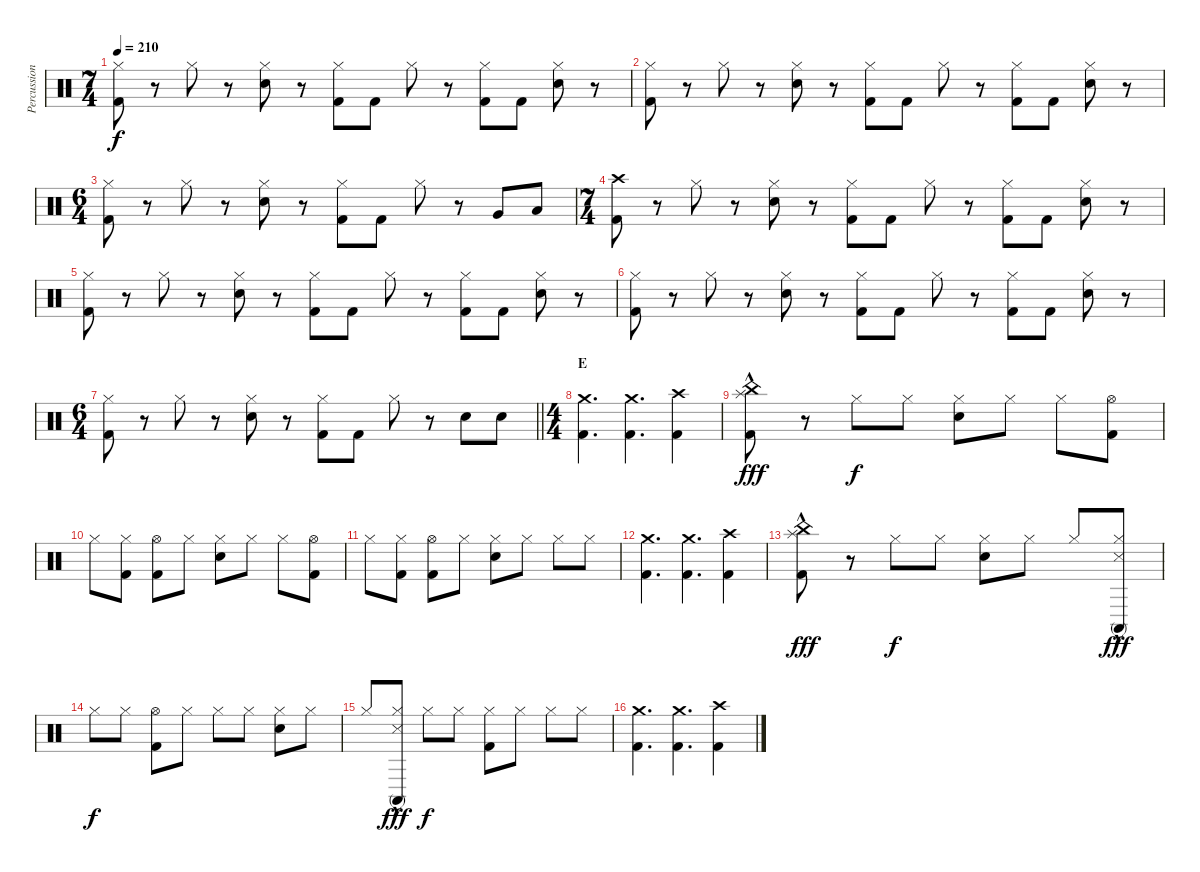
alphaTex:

\track ("Percussion" "Percussion") {instrument percussion}
\staff {score}
\articulation defaults
\ts (7 4)
\tempo 210
\clef neutral
\ks c
("Hi-Hat (closed)" "Kick (hit) 2").8{dy f} r.8 "Hi-Hat (closed)".8 r.8 ("Hi-Hat (closed)" "Electric Snare (hit)").8 r.8 ("Hi-Hat (closed)" "Kick (hit) 2").8 "Kick (hit) 2".8 "Hi-Hat (closed)".8 r.8 ("Hi-Hat (closed)" "Kick (hit) 2").8 "Kick (hit) 2".8 ("Hi-Hat (closed)" "Electric Snare (hit)").8 r.8 |
("Hi-Hat (closed)" "Kick (hit) 2").8 r.8 "Hi-Hat (closed)".8 r.8 ("Hi-Hat (closed)" "Electric Snare (hit)").8 r.8 ("Hi-Hat (closed)" "Kick (hit) 2").8 "Kick (hit) 2".8 "Hi-Hat (closed)".8 r.8 ("Hi-Hat (closed)" "Kick (hit) 2").8 "Kick (hit) 2".8 ("Hi-Hat (closed)" "Electric Snare (hit)").8 r.8 |
\ts (6 4)
("Hi-Hat (closed)" "Kick (hit) 2").8 r.8 "Hi-Hat (closed)".8 r.8 ("Hi-Hat (closed)" "Electric Snare (hit)").8 r.8 ("Hi-Hat (closed)" "Kick (hit) 2").8 "Kick (hit) 2".8 "Hi-Hat (closed)".8 r.8 "Very Low Tom (hit)".8 "Low Floor Tom (hit)".8 |
\ts (7 4)
("Crash high (hit)" "Kick (hit) 2").8 r.8 "Hi-Hat (closed)".8 r.8 ("Hi-Hat (closed)" "Electric Snare (hit)").8 r.8 ("Hi-Hat (closed)" "Kick (hit) 2").8 "Kick (hit) 2".8 "Hi-Hat (closed)".8 r.8 ("Hi-Hat (closed)" "Kick (hit) 2").8 "Kick (hit) 2".8 ("Hi-Hat (closed)" "Electric Snare (hit)").8 r.8 |
("Hi-Hat (closed)" "Kick (hit) 2").8 r.8 "Hi-Hat (closed)".8 r.8 ("Hi-Hat (closed)" "Electric Snare (hit)").8 r.8 ("Hi-Hat (closed)" "Kick (hit) 2").8 "Kick (hit) 2".8 "Hi-Hat (closed)".8 r.8 ("Hi-Hat (closed)" "Kick (hit) 2").8 "Kick (hit) 2".8 ("Hi-Hat (closed)" "Electric Snare (hit)").8 r.8 |
("Hi-Hat (closed)" "Kick (hit) 2").8 r.8 "Hi-Hat (closed)".8 r.8 ("Hi-Hat (closed)" "Electric Snare (hit)").8 r.8 ("Hi-Hat (closed)" "Kick (hit) 2").8 "Kick (hit) 2".8 "Hi-Hat (closed)".8 r.8 ("Hi-Hat (closed)" "Kick (hit) 2").8 "Kick (hit) 2".8 ("Hi-Hat (closed)" "Electric Snare (hit)").8 r.8 |
\ts (6 4)
\barLineRight lightlight
("Hi-Hat (closed)" "Kick (hit) 2").8 r.8 "Hi-Hat (closed)".8 r.8 ("Hi-Hat (closed)" "Electric Snare (hit)").8 r.8 ("Hi-Hat (closed)" "Kick (hit) 2").8 "Kick (hit) 2".8 "Hi-Hat (closed)".8 r.8 "Electric Snare (hit)".8 "Electric Snare (hit)".8 |
\ts (4 4)
\section ("" "E")
("Crash medium (hit)" "Kick (hit) 2").4{d} ("Crash medium (hit)" "Kick (hit) 2").4{d} ("Crash high (hit)" "Kick (hit) 2").4 |
("China (hit)" "Splash (hit)"{hac} "Kick (hit) 2").8{dy fff} r.8 "Hi-Hat (closed)".8{dy f} "Hi-Hat (closed)".8 ("Hi-Hat (closed)" "Electric Snare (hit)").8 "Hi-Hat (closed)".8 "Hi-Hat (closed)".8 ("Hi-Hat (open)" "Kick (hit) 2").8 |
"Hi-Hat (closed)".8 ("Hi-Hat (closed)" "Kick (hit) 2").8 ("Hi-Hat (open)" "Kick (hit) 2").8 "Hi-Hat (closed)".8 ("Hi-Hat (closed)" "Electric Snare (hit)").8 "Hi-Hat (closed)".8 "Hi-Hat (closed)".8 ("Hi-Hat (open)" "Kick (hit) 2").8 |
"Hi-Hat (closed)".8 ("Hi-Hat (closed)" "Kick (hit) 2").8 ("Hi-Hat (open)" "Kick (hit) 2").8 "Hi-Hat (closed)".8 ("Hi-Hat (closed)" "Electric Snare (hit)").8 "Hi-Hat (closed)".8 "Hi-Hat (closed)".8 "Hi-Hat (closed)".8 |
("Crash medium (hit)" "Kick (hit) 2").4{d} ("Crash medium (hit)" "Kick (hit) 2").4{d} ("Crash high (hit)" "Kick (hit) 2").4 |
("China (hit)" "Splash (hit)"{hac} "Kick (hit) 2").8{dy fff} r.8 "Hi-Hat (closed)".8{dy f} "Hi-Hat (closed)".8 ("Hi-Hat (closed)" "Electric Snare (hit)").8 "Hi-Hat (closed)".8 "Hi-Hat (closed)".8 ("Hi-Hat (closed)" "Snare (side stick) 3"{hac} "Conga high (mute)"{hac}).8{dy fff} |
"Hi-Hat (closed)".8{dy f} "Hi-Hat (closed)".8 ("Hi-Hat (open)" "Kick (hit) 2").8 "Hi-Hat (closed)".8 "Hi-Hat (closed)".8 "Hi-Hat (closed)".8 ("Hi-Hat (closed)" "Electric Snare (hit)").8 "Hi-Hat (closed)".8 |
"Hi-Hat (closed)".8 ("Hi-Hat (closed)" "Snare (side stick) 3"{hac} "Conga high (mute)"{hac}).8{dy fff} "Hi-Hat (closed)".8{dy f} "Hi-Hat (closed)".8 ("Hi-Hat (closed)" "Kick (hit) 2").8 "Hi-Hat (closed)".8 "Hi-Hat (closed)".8 "Hi-Hat (closed)".8 |
("Crash medium (hit)" "Kick (hit) 2").4{d} ("Crash medium (hit)" "Kick (hit) 2").4{d} ("Crash high (hit)" "Kick (hit) 2").4
